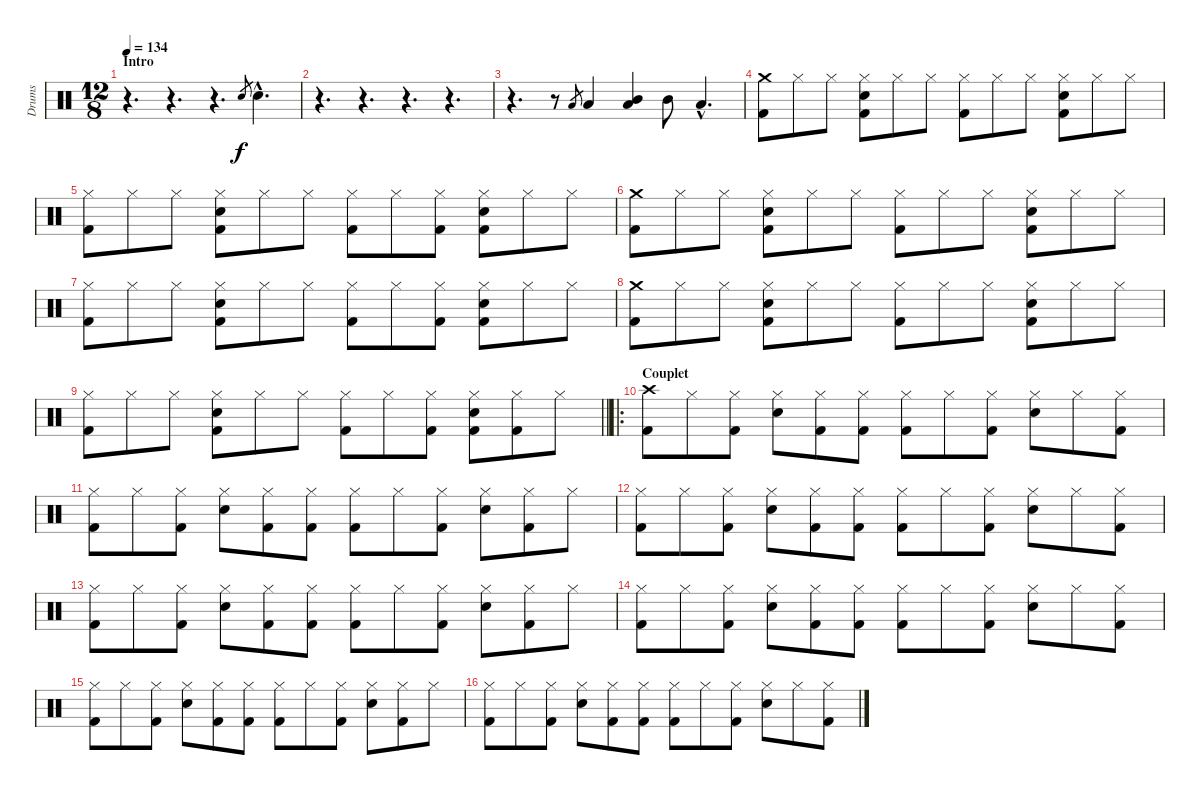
\track ("Drums" "Drums") {instrument percussion}
\staff {score}
\articulation defaults
\ts (12 8)
\section ("" "Intro")
\tempo 134
\clef neutral
\ks c
r.4{d dy f} r.4{d} r.4{d} "Snare (hit) 2".8{gr} "Snare (hit) 2"{hac}.4{d} |
r.4{d} r.4{d} r.4{d} r.4{d} |
r.4{d} r.8 "Low Tom (hit)".8{gr} "Low Tom (hit)".4 ("Mid Tom (hit)" "Low Tom (hit)").4 "Mid Tom (hit)".8 "Low Floor Tom (hit)"{hac}.4{d} |
("Crash medium (hit)" "Kick (hit) 2").8 "Hi-Hat (closed)".8 "Hi-Hat (closed)".8 ("Hi-Hat (closed)" "Snare (hit) 2" "Kick (hit) 2").8 "Hi-Hat (closed)".8 "Hi-Hat (closed)".8 ("Hi-Hat (closed)" "Kick (hit) 2").8 "Hi-Hat (closed)".8 "Hi-Hat (closed)".8 ("Hi-Hat (closed)" "Snare (hit) 2" "Kick (hit) 2").8 "Hi-Hat (closed)".8 "Hi-Hat (closed)".8 |
("Hi-Hat (closed)" "Kick (hit) 2").8 "Hi-Hat (closed)".8 "Hi-Hat (closed)".8 ("Hi-Hat (closed)" "Snare (hit) 2" "Kick (hit) 2").8 "Hi-Hat (closed)".8 "Hi-Hat (closed)".8 ("Hi-Hat (closed)" "Kick (hit) 2").8 "Hi-Hat (closed)".8 ("Hi-Hat (closed)" "Kick (hit) 2").8 ("Hi-Hat (closed)" "Snare (hit) 2" "Kick (hit) 2").8 "Hi-Hat (closed)".8 "Hi-Hat (closed)".8 |
("Crash medium (hit)" "Kick (hit) 2").8 "Hi-Hat (closed)".8 "Hi-Hat (closed)".8 ("Hi-Hat (closed)" "Snare (hit) 2" "Kick (hit) 2").8 "Hi-Hat (closed)".8 "Hi-Hat (closed)".8 ("Hi-Hat (closed)" "Kick (hit) 2").8 "Hi-Hat (closed)".8 "Hi-Hat (closed)".8 ("Hi-Hat (closed)" "Snare (hit) 2" "Kick (hit) 2").8 "Hi-Hat (closed)".8 "Hi-Hat (closed)".8 |
("Hi-Hat (closed)" "Kick (hit) 2").8 "Hi-Hat (closed)".8 "Hi-Hat (closed)".8 ("Hi-Hat (closed)" "Snare (hit) 2" "Kick (hit) 2").8 "Hi-Hat (closed)".8 "Hi-Hat (closed)".8 ("Hi-Hat (closed)" "Kick (hit) 2").8 "Hi-Hat (closed)".8 ("Hi-Hat (closed)" "Kick (hit) 2").8 ("Hi-Hat (closed)" "Snare (hit) 2" "Kick (hit) 2").8 "Hi-Hat (closed)".8 "Hi-Hat (closed)".8 |
("Crash medium (hit)" "Kick (hit) 2").8 "Hi-Hat (closed)".8 "Hi-Hat (closed)".8 ("Hi-Hat (closed)" "Snare (hit) 2" "Kick (hit) 2").8 "Hi-Hat (closed)".8 "Hi-Hat (closed)".8 ("Hi-Hat (closed)" "Kick (hit) 2").8 "Hi-Hat (closed)".8 "Hi-Hat (closed)".8 ("Hi-Hat (closed)" "Snare (hit) 2" "Kick (hit) 2").8 "Hi-Hat (closed)".8 "Hi-Hat (closed)".8 |
\barLineRight lightlight
("Hi-Hat (closed)" "Kick (hit) 2").8 "Hi-Hat (closed)".8 "Hi-Hat (closed)".8 ("Hi-Hat (closed)" "Snare (hit) 2" "Kick (hit) 2").8 "Hi-Hat (closed)".8 "Hi-Hat (closed)".8 ("Hi-Hat (closed)" "Kick (hit) 2").8 "Hi-Hat (closed)".8 ("Hi-Hat (closed)" "Kick (hit) 2").8 ("Hi-Hat (closed)" "Snare (hit) 2" "Kick (hit) 2").8 ("Hi-Hat (closed)" "Kick (hit) 2").8 "Hi-Hat (closed)".8 |
\ro
\section ("" "Couplet")
("Crash high (hit)" "Kick (hit) 2").8 "Hi-Hat (closed)".8 ("Hi-Hat (closed)" "Kick (hit) 2").8 ("Hi-Hat (closed)" "Snare (hit) 2").8 ("Hi-Hat (closed)" "Kick (hit) 2").8 ("Hi-Hat (closed)" "Kick (hit) 2").8 ("Hi-Hat (closed)" "Kick (hit) 2").8 "Hi-Hat (closed)".8 ("Hi-Hat (closed)" "Kick (hit) 2").8 ("Hi-Hat (closed)" "Snare (hit) 2").8 "Hi-Hat (closed)".8 ("Hi-Hat (closed)" "Kick (hit) 2").8 |
("Hi-Hat (closed)" "Kick (hit) 2").8 "Hi-Hat (closed)".8 ("Hi-Hat (closed)" "Kick (hit) 2").8 ("Hi-Hat (closed)" "Snare (hit) 2").8 ("Hi-Hat (closed)" "Kick (hit) 2").8 ("Hi-Hat (closed)" "Kick (hit) 2").8 ("Hi-Hat (closed)" "Kick (hit) 2").8 "Hi-Hat (closed)".8 ("Hi-Hat (closed)" "Kick (hit) 2").8 ("Hi-Hat (closed)" "Snare (hit) 2").8 ("Hi-Hat (closed)" "Kick (hit) 2").8 "Hi-Hat (closed)".8 |
("Hi-Hat (closed)" "Kick (hit) 2").8 "Hi-Hat (closed)".8 ("Hi-Hat (closed)" "Kick (hit) 2").8 ("Hi-Hat (closed)" "Snare (hit) 2").8 ("Hi-Hat (closed)" "Kick (hit) 2").8 ("Hi-Hat (closed)" "Kick (hit) 2").8 ("Hi-Hat (closed)" "Kick (hit) 2").8 "Hi-Hat (closed)".8 ("Hi-Hat (closed)" "Kick (hit) 2").8 ("Hi-Hat (closed)" "Snare (hit) 2").8 "Hi-Hat (closed)".8 ("Hi-Hat (closed)" "Kick (hit) 2").8 |
("Hi-Hat (closed)" "Kick (hit) 2").8 "Hi-Hat (closed)".8 ("Hi-Hat (closed)" "Kick (hit) 2").8 ("Hi-Hat (closed)" "Snare (hit) 2").8 ("Hi-Hat (closed)" "Kick (hit) 2").8 ("Hi-Hat (closed)" "Kick (hit) 2").8 ("Hi-Hat (closed)" "Kick (hit) 2").8 "Hi-Hat (closed)".8 ("Hi-Hat (closed)" "Kick (hit) 2").8 ("Hi-Hat (closed)" "Snare (hit) 2").8 ("Hi-Hat (closed)" "Kick (hit) 2").8 "Hi-Hat (closed)".8 |
("Hi-Hat (closed)" "Kick (hit) 2").8 "Hi-Hat (closed)".8 ("Hi-Hat (closed)" "Kick (hit) 2").8 ("Hi-Hat (closed)" "Snare (hit) 2").8 ("Hi-Hat (closed)" "Kick (hit) 2").8 ("Hi-Hat (closed)" "Kick (hit) 2").8 ("Hi-Hat (closed)" "Kick (hit) 2").8 "Hi-Hat (closed)".8 ("Hi-Hat (closed)" "Kick (hit) 2").8 ("Hi-Hat (closed)" "Snare (hit) 2").8 "Hi-Hat (closed)".8 ("Hi-Hat (closed)" "Kick (hit) 2").8 |
("Hi-Hat (closed)" "Kick (hit) 2").8 "Hi-Hat (closed)".8 ("Hi-Hat (closed)" "Kick (hit) 2").8 ("Hi-Hat (closed)" "Snare (hit) 2").8 ("Hi-Hat (closed)" "Kick (hit) 2").8 ("Hi-Hat (closed)" "Kick (hit) 2").8 ("Hi-Hat (closed)" "Kick (hit) 2").8 "Hi-Hat (closed)".8 ("Hi-Hat (closed)" "Kick (hit) 2").8 ("Hi-Hat (closed)" "Snare (hit) 2").8 ("Hi-Hat (closed)" "Kick (hit) 2").8 "Hi-Hat (closed)".8 |
("Hi-Hat (closed)" "Kick (hit) 2").8 "Hi-Hat (closed)".8 ("Hi-Hat (closed)" "Kick (hit) 2").8 ("Hi-Hat (closed)" "Snare (hit) 2").8 ("Hi-Hat (closed)" "Kick (hit) 2").8 ("Hi-Hat (closed)" "Kick (hit) 2").8 ("Hi-Hat (closed)" "Kick (hit) 2").8 "Hi-Hat (closed)".8 ("Hi-Hat (closed)" "Kick (hit) 2").8 ("Hi-Hat (closed)" "Snare (hit) 2").8 "Hi-Hat (closed)".8 ("Hi-Hat (closed)" "Kick (hit) 2").8
